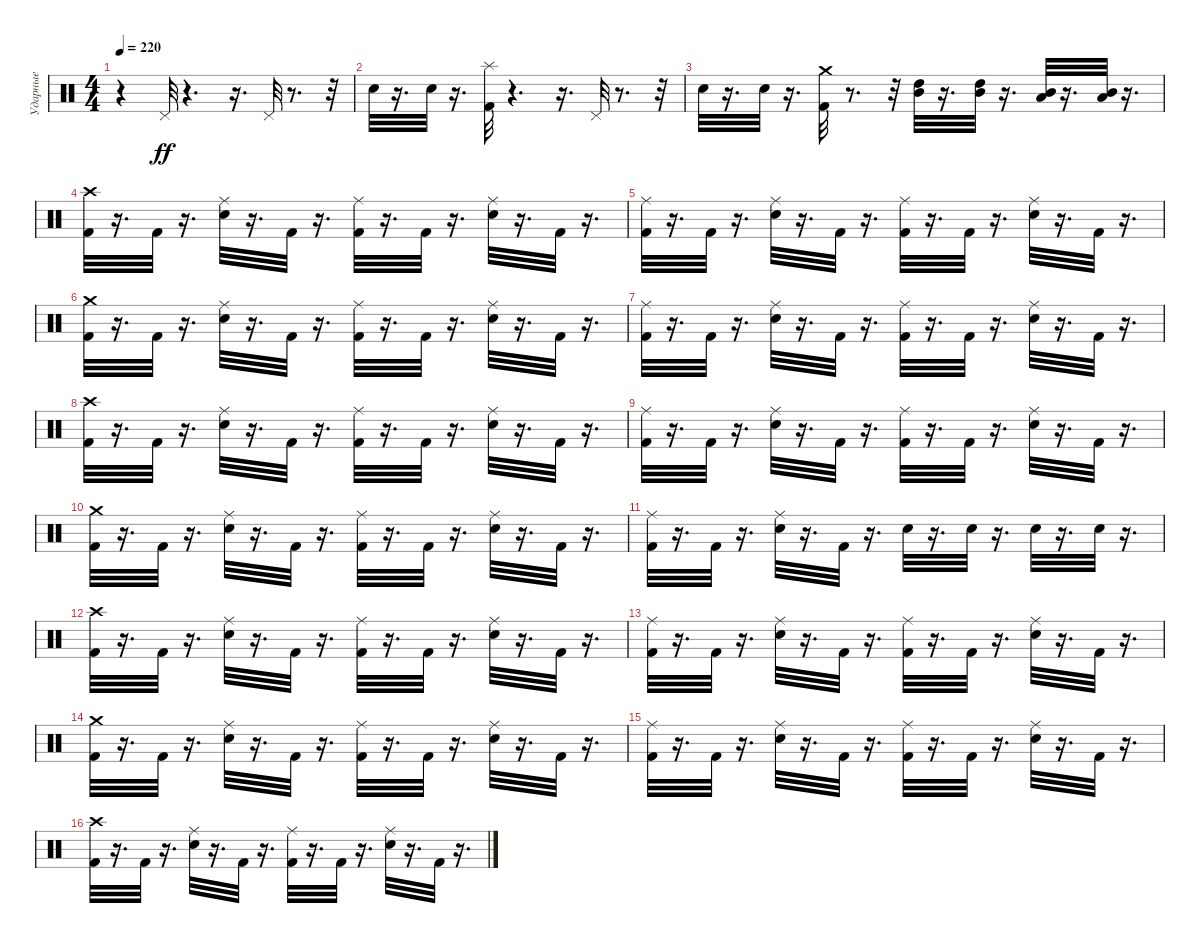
\track ("Ударные" "Ударные") {instrument percussion}
\staff {score}
\articulation defaults
\ts (4 4)
\tempo 220
\clef neutral
\ks c
r.4{dy ff} "Pedal Hi-Hat (hit)".32 r.4{d} r.16{d} "Pedal Hi-Hat (hit)".32 r.8{d} r.32 |
"Snare (hit) 2".32 r.16{d} "Snare (hit) 2".32 r.16{d} ("Splash (hit)" "Kick (hit) 2").32 r.4{d} r.16{d} "Pedal Hi-Hat (hit)".32 r.8{d} r.32 |
"Snare (hit) 2".32 r.16{d} "Snare (hit) 2".32 r.16{d} ("Crash medium (hit)" "Kick (hit) 2").32 r.8{d} r.32 ("Mid Tom (hit)" "High Tom (hit)").32 r.16{d} ("Mid Tom (hit)" "High Tom (hit)").32 r.16{d} ("Low Tom (hit)" "Mid Tom (hit)").32 r.16{d} ("Mid Tom (hit)" "Low Tom (hit)").32 r.16{d} |
("Crash high (hit)" "Kick (hit) 2").32 r.16{d} "Kick (hit) 2".32 r.16{d} ("Ride (middle)" "Snare (hit) 2").32 r.16{d} "Kick (hit) 2".32 r.16{d} ("Ride (middle)" "Kick (hit) 2").32 r.16{d} "Kick (hit) 2".32 r.16{d} ("Ride (middle)" "Snare (hit) 2").32 r.16{d} "Kick (hit) 2".32 r.16{d} |
("Ride (middle)" "Kick (hit) 2").32 r.16{d} "Kick (hit) 2".32 r.16{d} ("Ride (middle)" "Snare (hit) 2").32 r.16{d} "Kick (hit) 2".32 r.16{d} ("Ride (middle)" "Kick (hit) 2").32 r.16{d} "Kick (hit) 2".32 r.16{d} ("Ride (middle)" "Snare (hit) 2").32 r.16{d} "Kick (hit) 2".32 r.16{d} |
("Crash medium (hit)" "Kick (hit) 2").32 r.16{d} "Kick (hit) 2".32 r.16{d} ("Ride (middle)" "Snare (hit) 2").32 r.16{d} "Kick (hit) 2".32 r.16{d} ("Ride (middle)" "Kick (hit) 2").32 r.16{d} "Kick (hit) 2".32 r.16{d} ("Ride (middle)" "Snare (hit) 2").32 r.16{d} "Kick (hit) 2".32 r.16{d} |
("Ride (middle)" "Kick (hit) 2").32 r.16{d} "Kick (hit) 2".32 r.16{d} ("Ride (middle)" "Snare (hit) 2").32 r.16{d} "Kick (hit) 2".32 r.16{d} ("Ride (middle)" "Kick (hit) 2").32 r.16{d} "Kick (hit) 2".32 r.16{d} ("Ride (middle)" "Snare (hit) 2").32 r.16{d} "Kick (hit) 2".32 r.16{d} |
("Crash high (hit)" "Kick (hit) 2").32 r.16{d} "Kick (hit) 2".32 r.16{d} ("Ride (middle)" "Snare (hit) 2").32 r.16{d} "Kick (hit) 2".32 r.16{d} ("Ride (middle)" "Kick (hit) 2").32 r.16{d} "Kick (hit) 2".32 r.16{d} ("Ride (middle)" "Snare (hit) 2").32 r.16{d} "Kick (hit) 2".32 r.16{d} |
("Ride (middle)" "Kick (hit) 2").32 r.16{d} "Kick (hit) 2".32 r.16{d} ("Ride (middle)" "Snare (hit) 2").32 r.16{d} "Kick (hit) 2".32 r.16{d} ("Ride (middle)" "Kick (hit) 2").32 r.16{d} "Kick (hit) 2".32 r.16{d} ("Ride (middle)" "Snare (hit) 2").32 r.16{d} "Kick (hit) 2".32 r.16{d} |
("Crash medium (hit)" "Kick (hit) 2").32 r.16{d} "Kick (hit) 2".32 r.16{d} ("Ride (middle)" "Snare (hit) 2").32 r.16{d} "Kick (hit) 2".32 r.16{d} ("Ride (middle)" "Kick (hit) 2").32 r.16{d} "Kick (hit) 2".32 r.16{d} ("Ride (middle)" "Snare (hit) 2").32 r.16{d} "Kick (hit) 2".32 r.16{d} |
("Ride (middle)" "Kick (hit) 2").32 r.16{d} "Kick (hit) 2".32 r.16{d} ("Ride (middle)" "Snare (hit) 2").32 r.16{d} "Kick (hit) 2".32 r.16{d} "Snare (hit) 2".32 r.16{d} "Snare (hit) 2".32 r.16{d} "Snare (hit) 2".32 r.16{d} "Snare (hit) 2".32 r.16{d} |
("Crash high (hit)" "Kick (hit) 2").32 r.16{d} "Kick (hit) 2".32 r.16{d} ("Ride (middle)" "Snare (hit) 2").32 r.16{d} "Kick (hit) 2".32 r.16{d} ("Ride (middle)" "Kick (hit) 2").32 r.16{d} "Kick (hit) 2".32 r.16{d} ("Ride (middle)" "Snare (hit) 2").32 r.16{d} "Kick (hit) 2".32 r.16{d} |
("Ride (middle)" "Kick (hit) 2").32 r.16{d} "Kick (hit) 2".32 r.16{d} ("Ride (middle)" "Snare (hit) 2").32 r.16{d} "Kick (hit) 2".32 r.16{d} ("Ride (middle)" "Kick (hit) 2").32 r.16{d} "Kick (hit) 2".32 r.16{d} ("Ride (middle)" "Snare (hit) 2").32 r.16{d} "Kick (hit) 2".32 r.16{d} |
("Crash medium (hit)" "Kick (hit) 2").32 r.16{d} "Kick (hit) 2".32 r.16{d} ("Ride (middle)" "Snare (hit) 2").32 r.16{d} "Kick (hit) 2".32 r.16{d} ("Ride (middle)" "Kick (hit) 2").32 r.16{d} "Kick (hit) 2".32 r.16{d} ("Ride (middle)" "Snare (hit) 2").32 r.16{d} "Kick (hit) 2".32 r.16{d} |
("Ride (middle)" "Kick (hit) 2").32 r.16{d} "Kick (hit) 2".32 r.16{d} ("Ride (middle)" "Snare (hit) 2").32 r.16{d} "Kick (hit) 2".32 r.16{d} ("Ride (middle)" "Kick (hit) 2").32 r.16{d} "Kick (hit) 2".32 r.16{d} ("Ride (middle)" "Snare (hit) 2").32 r.16{d} "Kick (hit) 2".32 r.16{d} |
("Crash high (hit)" "Kick (hit) 2").32 r.16{d} "Kick (hit) 2".32 r.16{d} ("Ride (middle)" "Snare (hit) 2").32 r.16{d} "Kick (hit) 2".32 r.16{d} ("Ride (middle)" "Kick (hit) 2").32 r.16{d} "Kick (hit) 2".32 r.16{d} ("Ride (middle)" "Snare (hit) 2").32 r.16{d} "Kick (hit) 2".32 r.16{d}
